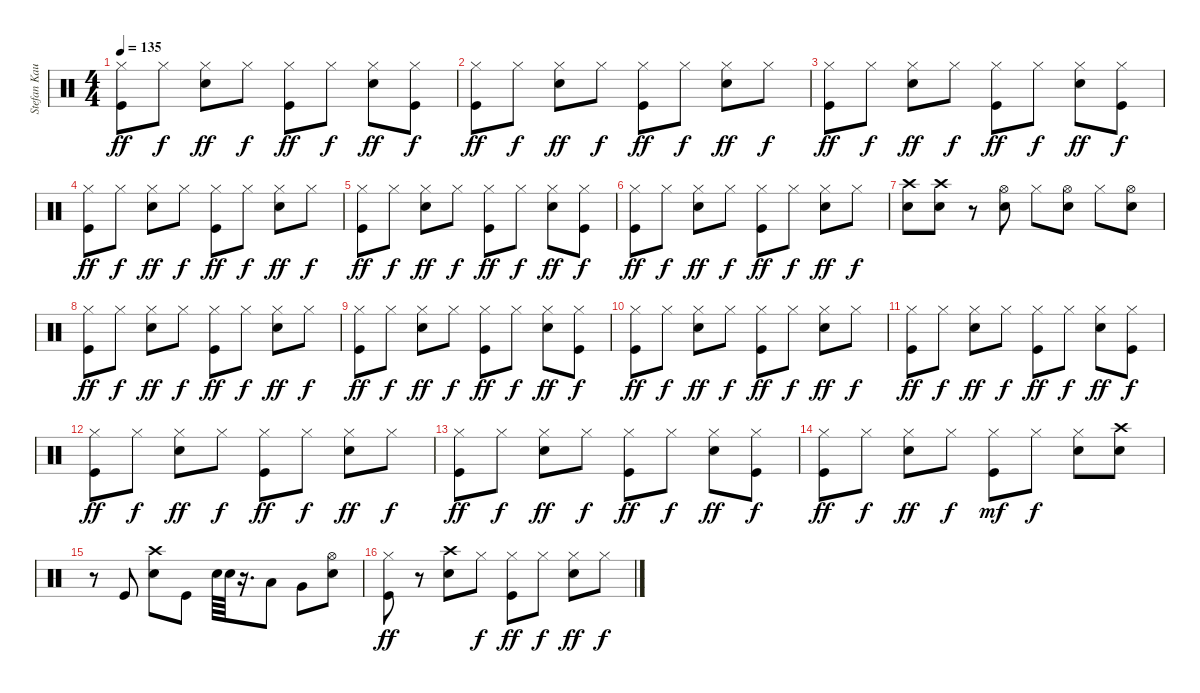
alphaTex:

\track ("Stefan Kaufmann" "Stefan Kau") {instrument percussion}
\staff {score}
\articulation defaults
\ts (4 4)
\tempo 135
\clef neutral
\ks c
("Hi-Hat (closed)" "Kick (hit)").8{dy ff} "Hi-Hat (closed)".8{dy f} ("Hi-Hat (closed)" "Snare (hit) 2").8{dy ff} "Hi-Hat (closed)".8{dy f} ("Hi-Hat (closed)" "Kick (hit)").8{dy ff} "Hi-Hat (closed)".8{dy f} ("Hi-Hat (closed)" "Snare (hit) 2").8{dy ff} ("Hi-Hat (closed)" "Kick (hit)").8{dy f} |
("Hi-Hat (closed)" "Kick (hit)").8{dy ff} "Hi-Hat (closed)".8{dy f} ("Hi-Hat (closed)" "Snare (hit) 2").8{dy ff} "Hi-Hat (closed)".8{dy f} ("Hi-Hat (closed)" "Kick (hit)").8{dy ff} "Hi-Hat (closed)".8{dy f} ("Hi-Hat (closed)" "Snare (hit) 2").8{dy ff} "Hi-Hat (closed)".8{dy f} |
("Hi-Hat (closed)" "Kick (hit)").8{dy ff} "Hi-Hat (closed)".8{dy f} ("Hi-Hat (closed)" "Snare (hit) 2").8{dy ff} "Hi-Hat (closed)".8{dy f} ("Hi-Hat (closed)" "Kick (hit)").8{dy ff} "Hi-Hat (closed)".8{dy f} ("Hi-Hat (closed)" "Snare (hit) 2").8{dy ff} ("Hi-Hat (closed)" "Kick (hit)").8{dy f} |
("Hi-Hat (closed)" "Kick (hit)").8{dy ff} "Hi-Hat (closed)".8{dy f} ("Hi-Hat (closed)" "Snare (hit) 2").8{dy ff} "Hi-Hat (closed)".8{dy f} ("Hi-Hat (closed)" "Kick (hit)").8{dy ff} "Hi-Hat (closed)".8{dy f} ("Hi-Hat (closed)" "Snare (hit) 2").8{dy ff} "Hi-Hat (closed)".8{dy f} |
("Hi-Hat (closed)" "Kick (hit)").8{dy ff} "Hi-Hat (closed)".8{dy f} ("Hi-Hat (closed)" "Snare (hit) 2").8{dy ff} "Hi-Hat (closed)".8{dy f} ("Hi-Hat (closed)" "Kick (hit)").8{dy ff} "Hi-Hat (closed)".8{dy f} ("Hi-Hat (closed)" "Snare (hit) 2").8{dy ff} ("Hi-Hat (closed)" "Kick (hit)").8{dy f} |
("Hi-Hat (closed)" "Kick (hit)").8{dy ff} "Hi-Hat (closed)".8{dy f} ("Hi-Hat (closed)" "Snare (hit) 2").8{dy ff} "Hi-Hat (closed)".8{dy f} ("Hi-Hat (closed)" "Kick (hit)").8{dy ff} "Hi-Hat (closed)".8{dy f} ("Hi-Hat (closed)" "Snare (hit) 2").8{dy ff} "Hi-Hat (closed)".8{dy f} |
("Crash high (hit)" "Snare (hit) 2").8 ("Crash high (hit)" "Snare (hit) 2").8 r.8 ("Hi-Hat (open)" "Snare (hit) 2").8 "Hi-Hat (closed)".8 ("Hi-Hat (open)" "Snare (hit) 2").8 "Hi-Hat (closed)".8 ("Hi-Hat (open)" "Snare (hit) 2").8 |
("Hi-Hat (closed)" "Kick (hit)").8{dy ff} "Hi-Hat (closed)".8{dy f} ("Hi-Hat (closed)" "Snare (hit) 2").8{dy ff} "Hi-Hat (closed)".8{dy f} ("Hi-Hat (closed)" "Kick (hit)").8{dy ff} "Hi-Hat (closed)".8{dy f} ("Hi-Hat (closed)" "Snare (hit) 2").8{dy ff} "Hi-Hat (closed)".8{dy f} |
("Hi-Hat (closed)" "Kick (hit)").8{dy ff} "Hi-Hat (closed)".8{dy f} ("Hi-Hat (closed)" "Snare (hit) 2").8{dy ff} "Hi-Hat (closed)".8{dy f} ("Hi-Hat (closed)" "Kick (hit)").8{dy ff} "Hi-Hat (closed)".8{dy f} ("Hi-Hat (closed)" "Snare (hit) 2").8{dy ff} ("Hi-Hat (closed)" "Kick (hit)").8{dy f} |
("Hi-Hat (closed)" "Kick (hit)").8{dy ff} "Hi-Hat (closed)".8{dy f} ("Hi-Hat (closed)" "Snare (hit) 2").8{dy ff} "Hi-Hat (closed)".8{dy f} ("Hi-Hat (closed)" "Kick (hit)").8{dy ff} "Hi-Hat (closed)".8{dy f} ("Hi-Hat (closed)" "Snare (hit) 2").8{dy ff} "Hi-Hat (closed)".8{dy f} |
("Hi-Hat (closed)" "Kick (hit)").8{dy ff} "Hi-Hat (closed)".8{dy f} ("Hi-Hat (closed)" "Snare (hit) 2").8{dy ff} "Hi-Hat (closed)".8{dy f} ("Hi-Hat (closed)" "Kick (hit)").8{dy ff} "Hi-Hat (closed)".8{dy f} ("Hi-Hat (closed)" "Snare (hit) 2").8{dy ff} ("Hi-Hat (closed)" "Kick (hit)").8{dy f} |
("Hi-Hat (closed)" "Kick (hit)").8{dy ff} "Hi-Hat (closed)".8{dy f} ("Hi-Hat (closed)" "Snare (hit) 2").8{dy ff} "Hi-Hat (closed)".8{dy f} ("Hi-Hat (closed)" "Kick (hit)").8{dy ff} "Hi-Hat (closed)".8{dy f} ("Hi-Hat (closed)" "Snare (hit) 2").8{dy ff} "Hi-Hat (closed)".8{dy f} |
("Hi-Hat (closed)" "Kick (hit)").8{dy ff} "Hi-Hat (closed)".8{dy f} ("Hi-Hat (closed)" "Snare (hit) 2").8{dy ff} "Hi-Hat (closed)".8{dy f} ("Hi-Hat (closed)" "Kick (hit)").8{dy ff} "Hi-Hat (closed)".8{dy f} ("Hi-Hat (closed)" "Snare (hit) 2").8{dy ff} ("Hi-Hat (closed)" "Kick (hit)").8{dy f} |
("Hi-Hat (closed)" "Kick (hit)").8{dy ff} "Hi-Hat (closed)".8{dy f} ("Hi-Hat (closed)" "Snare (hit) 2").8{dy ff} "Hi-Hat (closed)".8{dy f} ("Hi-Hat (closed)" "Kick (hit)").8{dy mf} "Hi-Hat (closed)".8{dy f} ("Hi-Hat (closed)" "Snare (hit) 2").8 ("Crash high (hit)" "Snare (hit) 2").8 |
r.8 "Kick (hit)".8 ("Crash high (hit)" "Snare (hit) 2").8 "Kick (hit)".8 "Snare (hit) 2".64 "Snare (hit) 2".64 r.16{d} "Low Tom (hit)".8 "Very Low Tom (hit)".8 ("Hi-Hat (open)" "Snare (hit) 2").8 |
("Hi-Hat (closed)" "Kick (hit)").8{dy ff} r.8 ("Crash high (hit)" "Snare (hit) 2").8 "Hi-Hat (closed)".8{dy f} ("Hi-Hat (closed)" "Kick (hit)").8{dy ff} "Hi-Hat (closed)".8{dy f} ("Hi-Hat (closed)" "Snare (hit) 2").8{dy ff} "Hi-Hat (closed)".8{dy f}
